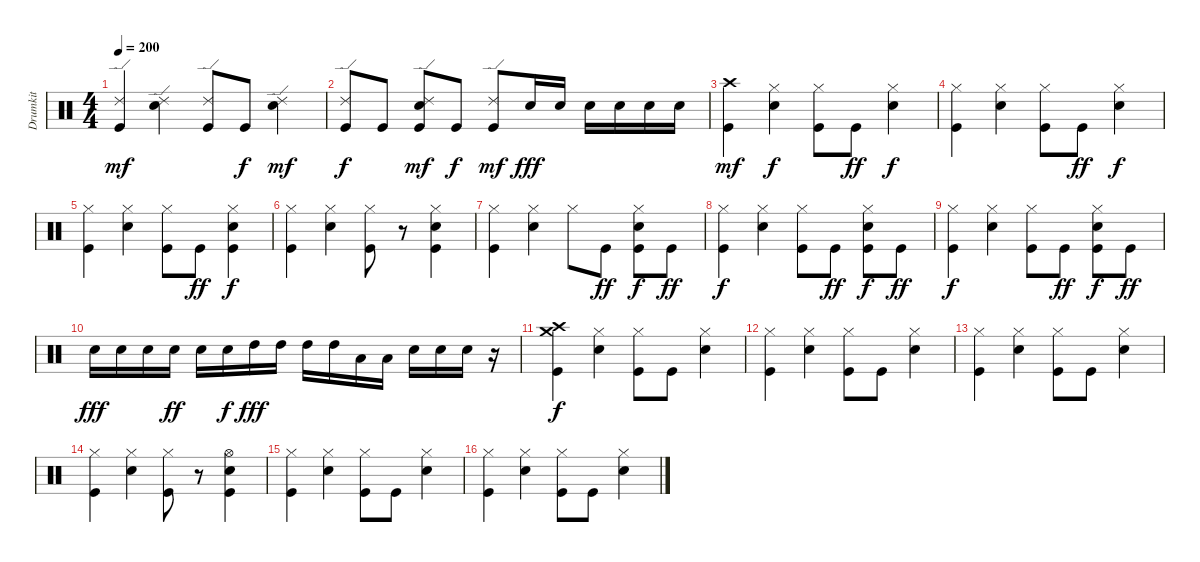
\track ("Drumkit" "Drumkit") {instrument percussion}
\staff {score}
\articulation defaults
\ts (4 4)
\tempo 200
\clef neutral
\ks c
("Ride (edge) 2" "Kick (hit)").4{dy mf} ("Ride (edge) 2" "Snare (hit) 2").4 ("Ride (edge) 2" "Kick (hit)").8 "Kick (hit)".8{dy f} ("Ride (edge) 2" "Snare (hit) 2").4{dy mf} |
("Ride (edge) 2" "Kick (hit)").8{dy f} "Kick (hit)".8 ("Ride (edge) 2" "Snare (hit) 2" "Kick (hit)").8{dy mf} "Kick (hit)".8{dy f} ("Ride (edge) 2" "Kick (hit)").8{dy mf} "Snare (hit) 2".16{dy fff} "Snare (hit) 2".16 "Snare (hit) 2".16 "Snare (hit) 2".16 "Snare (hit) 2".16 "Snare (hit) 2".16 |
("Crash high (hit)" "Kick (hit)").4{dy mf} ("Hi-Hat (closed)" "Snare (hit) 2").4{dy f} ("Hi-Hat (closed)" "Kick (hit)").8 "Kick (hit)".8{dy ff} ("Hi-Hat (closed)" "Snare (hit) 2").4{dy f} |
("Hi-Hat (closed)" "Kick (hit)").4 ("Hi-Hat (closed)" "Snare (hit) 2").4 ("Hi-Hat (closed)" "Kick (hit)").8 "Kick (hit)".8{dy ff} ("Hi-Hat (closed)" "Snare (hit) 2").4{dy f} |
("Hi-Hat (closed)" "Kick (hit)").4 ("Hi-Hat (closed)" "Snare (hit) 2").4 ("Hi-Hat (closed)" "Kick (hit)").8 "Kick (hit)".8{dy ff} ("Hi-Hat (closed)" "Snare (hit) 2" "Kick (hit)").4{dy f} |
("Hi-Hat (closed)" "Kick (hit)").4 ("Hi-Hat (closed)" "Snare (hit) 2").4 ("Hi-Hat (closed)" "Kick (hit)").8 r.8 ("Hi-Hat (closed)" "Snare (hit) 2" "Kick (hit)").4 |
("Hi-Hat (closed)" "Kick (hit)").4 ("Hi-Hat (closed)" "Snare (hit) 2").4 "Hi-Hat (closed)".8 "Kick (hit)".8{dy ff} ("Hi-Hat (closed)" "Snare (hit) 2" "Kick (hit)").8{dy f} "Kick (hit)".8{dy ff} |
("Hi-Hat (closed)" "Kick (hit)").4{dy f} ("Hi-Hat (closed)" "Snare (hit) 2").4 ("Hi-Hat (closed)" "Kick (hit)").8 "Kick (hit)".8{dy ff} ("Hi-Hat (closed)" "Snare (hit) 2" "Kick (hit)").8{dy f} "Kick (hit)".8{dy ff} |
("Hi-Hat (closed)" "Kick (hit)").4{dy f} ("Hi-Hat (closed)" "Snare (hit) 2").4 ("Hi-Hat (closed)" "Kick (hit)").8 "Kick (hit)".8{dy ff} ("Hi-Hat (closed)" "Snare (hit) 2" "Kick (hit)").8{dy f} "Kick (hit)".8{dy ff} |
"Snare (hit) 2".16{dy fff} "Snare (hit) 2".16 "Snare (hit) 2".16 "Snare (hit) 2".16{dy ff} "Snare (hit) 2".16 "Snare (hit) 2".16{dy f} "High Tom (hit)".16{dy fff} "High Tom (hit)".16 "High Tom (hit)".16 "High Tom (hit)".16 "Low Tom (hit)".16 "Low Tom (hit)".16 "Snare (hit) 2".16 "Snare (hit) 2".16 "Snare (hit) 2".16 r.16 |
("Crash high (hit)" "Crash medium (hit)" "Kick (hit)").4{dy f} ("Hi-Hat (closed)" "Snare (hit) 2").4 ("Hi-Hat (closed)" "Kick (hit)").8 "Kick (hit)".8 ("Hi-Hat (closed)" "Snare (hit) 2").4 |
("Hi-Hat (closed)" "Kick (hit)").4 ("Hi-Hat (closed)" "Snare (hit) 2").4 ("Hi-Hat (closed)" "Kick (hit)").8 "Kick (hit)".8 ("Hi-Hat (closed)" "Snare (hit) 2").4 |
("Hi-Hat (closed)" "Kick (hit)").4 ("Hi-Hat (closed)" "Snare (hit) 2").4 ("Hi-Hat (closed)" "Kick (hit)").8 "Kick (hit)".8 ("Hi-Hat (closed)" "Snare (hit) 2").4 |
("Hi-Hat (closed)" "Kick (hit)").4 ("Hi-Hat (closed)" "Snare (hit) 2").4 ("Hi-Hat (closed)" "Kick (hit)").8 r.8 ("Hi-Hat (open)" "Snare (hit) 2" "Kick (hit)").4 |
("Hi-Hat (closed)" "Kick (hit)").4 ("Hi-Hat (closed)" "Snare (hit) 2").4 ("Hi-Hat (closed)" "Kick (hit)").8 "Kick (hit)".8 ("Hi-Hat (closed)" "Snare (hit) 2").4 |
("Hi-Hat (closed)" "Kick (hit)").4 ("Hi-Hat (closed)" "Snare (hit) 2").4 ("Hi-Hat (closed)" "Kick (hit)").8 "Kick (hit)".8 ("Hi-Hat (closed)" "Snare (hit) 2").4
